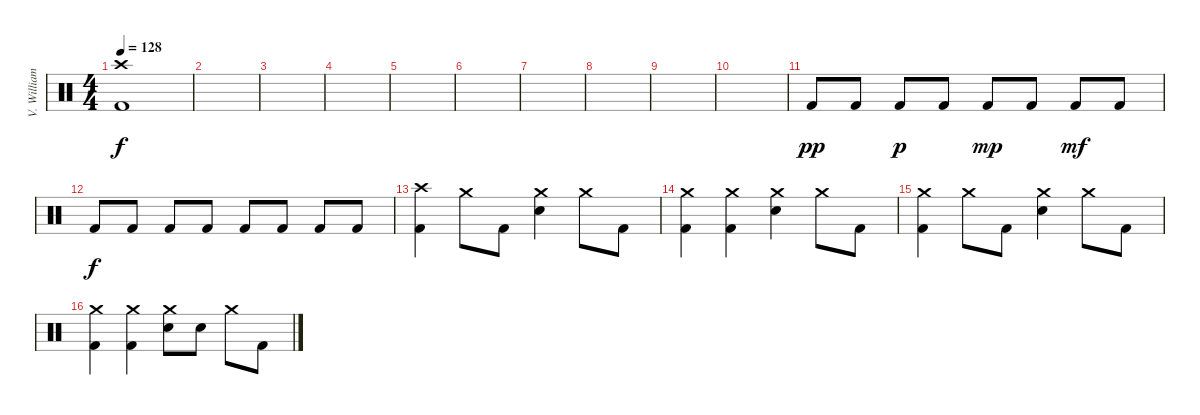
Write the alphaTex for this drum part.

\track ("V. Williams" "V. William") {instrument percussion}
\staff {score}
\articulation defaults
\ts (4 4)
\section ("" "")
\tempo 128
\clef neutral
\ks c
("Crash high (hit)" "Kick (hit) 2").1{dy f} |
|
|
|
|
|
|
|
|
|
"Kick (hit) 2".8{dy pp} "Kick (hit) 2".8 "Kick (hit) 2".8{dy p} "Kick (hit) 2".8 "Kick (hit) 2".8{dy mp} "Kick (hit) 2".8 "Kick (hit) 2".8{dy mf} "Kick (hit) 2".8 |
"Kick (hit) 2".8{dy f} "Kick (hit) 2".8 "Kick (hit) 2".8 "Kick (hit) 2".8 "Kick (hit) 2".8 "Kick (hit) 2".8 "Kick (hit) 2".8 "Kick (hit) 2".8 |
\section ("" "")
("Crash high (hit)" "Kick (hit) 2").4 "Crash medium (hit)".8 "Kick (hit) 2".8 ("Crash medium (hit)" "Electric Snare (hit)").4 "Crash medium (hit)".8 "Kick (hit) 2".8 |
("Crash medium (hit)" "Kick (hit) 2").4 ("Crash medium (hit)" "Kick (hit) 2").4 ("Crash medium (hit)" "Electric Snare (hit)").4 "Crash medium (hit)".8 "Kick (hit) 2".8 |
("Crash medium (hit)" "Kick (hit) 2").4 "Crash medium (hit)".8 "Kick (hit) 2".8 ("Crash medium (hit)" "Electric Snare (hit)").4 "Crash medium (hit)".8 "Kick (hit) 2".8 |
("Crash medium (hit)" "Kick (hit) 2").4 ("Crash medium (hit)" "Kick (hit) 2").4 ("Crash medium (hit)" "Electric Snare (hit)").8 "Electric Snare (hit)".8 "Crash medium (hit)".8 "Kick (hit) 2".8
